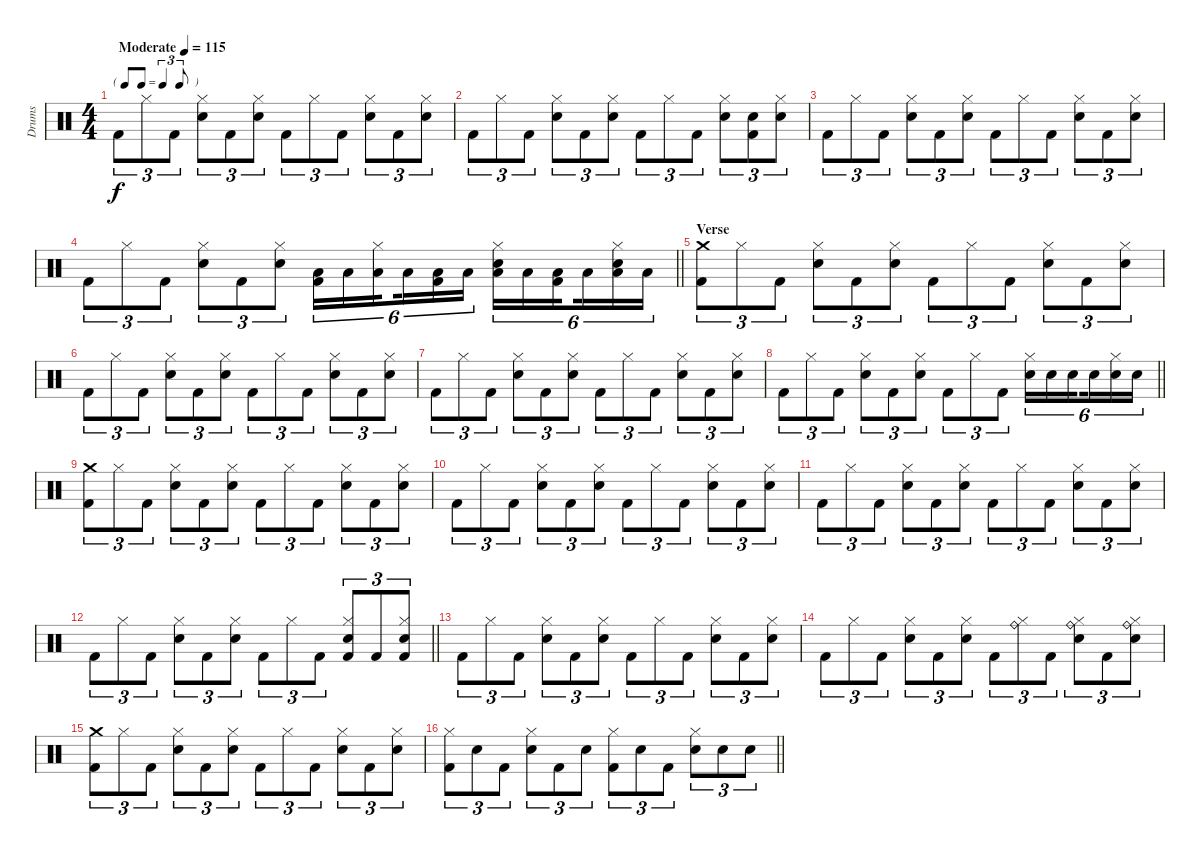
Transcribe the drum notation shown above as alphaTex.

\track ("Drums" "Drums") {instrument percussion}
\staff {score}
\articulation defaults
\ts (4 4)
\tf triplet8th
\tempo (115 "Moderate")
\clef neutral
\ks c "Kick (hit) 2".8{tu (3 2) dy f} "Hi-Hat (closed)".8{tu (3 2)} "Kick (hit) 2".8{tu (3 2)}
("Hi-Hat (closed)" "Snare (hit) 2").8{tu (3 2)} "Kick (hit) 2".8{tu (3 2)} ("Hi-Hat (closed)" "Snare (hit) 2").8{tu (3 2)} "Kick (hit) 2".8{tu (3 2)} "Hi-Hat (closed)".8{tu (3 2)} "Kick (hit) 2".8{tu (3 2)} ("Hi-Hat (closed)" "Snare (hit) 2").8{tu (3 2)} "Kick (hit) 2".8{tu (3 2)} ("Hi-Hat (closed)" "Snare (hit) 2").8{tu (3 2)} |
"Kick (hit) 2".8{tu (3 2)} "Hi-Hat (closed)".8{tu (3 2)} "Kick (hit) 2".8{tu (3 2)} ("Hi-Hat (closed)" "Snare (hit) 2").8{tu (3 2)} "Kick (hit) 2".8{tu (3 2)} ("Hi-Hat (closed)" "Snare (hit) 2").8{tu (3 2)} "Kick (hit) 2".8{tu (3 2)} "Hi-Hat (closed)".8{tu (3 2)} "Kick (hit) 2".8{tu (3 2)} ("Hi-Hat (closed)" "Snare (hit) 2").8{tu (3 2)} ("Snare (hit) 2" "Kick (hit) 2").8{tu (3 2)} ("Hi-Hat (closed)" "Snare (hit) 2").8{tu (3 2)} |
"Kick (hit) 2".8{tu (3 2)} "Hi-Hat (closed)".8{tu (3 2)} "Kick (hit) 2".8{tu (3 2)} ("Hi-Hat (closed)" "Snare (hit) 2").8{tu (3 2)} "Kick (hit) 2".8{tu (3 2)} ("Hi-Hat (closed)" "Snare (hit) 2").8{tu (3 2)} "Kick (hit) 2".8{tu (3 2)} "Hi-Hat (closed)".8{tu (3 2)} "Kick (hit) 2".8{tu (3 2)} ("Hi-Hat (closed)" "Snare (hit) 2").8{tu (3 2)} "Kick (hit) 2".8{tu (3 2)} ("Hi-Hat (closed)" "Snare (hit) 2").8{tu (3 2)} |
\barLineRight lightlight "Kick (hit) 2".8{tu (3 2)} "Hi-Hat (closed)".8{tu (3 2)} "Kick (hit) 2".8{tu (3 2)}
("Hi-Hat (closed)" "Snare (hit) 2").8{tu (3 2)} "Kick (hit) 2".8{tu (3 2)} ("Hi-Hat (closed)" "Snare (hit) 2").8{tu (3 2)} ("Low Tom (hit)" "Kick (hit) 2").16{tu (6 4)} "Low Tom (hit)".16{tu (6 4)} ("Hi-Hat (closed)" "Low Tom (hit)").16{tu (6 4) beam splitsecondary} "Low Tom (hit)".16{tu (6 4)} ("Low Tom (hit)" "Kick (hit) 2").16{tu (6 4)} "Low Tom (hit)".16{tu (6 4)} ("Hi-Hat (closed)" "Snare (hit) 2" "Low Floor Tom (hit)").16{tu (6 4)} "Low Floor Tom (hit)".16{tu (6 4)} ("Low Floor Tom (hit)" "Kick (hit) 2").16{tu (6 4) beam splitsecondary} "Low Floor Tom (hit)".16{tu (6 4)} ("Hi-Hat (closed)" "Snare (hit) 2" "Low Floor Tom (hit)").16{tu (6 4)} "Low Floor Tom (hit)".16{tu (6 4)} |
\section ("" "Verse")
("Crash medium (hit)" "Kick (hit) 2").8{tu (3 2)} "Hi-Hat (closed)".8{tu (3 2)} "Kick (hit) 2".8{tu (3 2)} ("Hi-Hat (closed)" "Snare (hit) 2").8{tu (3 2)} "Kick (hit) 2".8{tu (3 2)} ("Hi-Hat (closed)" "Snare (hit) 2").8{tu (3 2)} "Kick (hit) 2".8{tu (3 2)} "Hi-Hat (closed)".8{tu (3 2)} "Kick (hit) 2".8{tu (3 2)} ("Hi-Hat (closed)" "Snare (hit) 2").8{tu (3 2)} "Kick (hit) 2".8{tu (3 2)} ("Hi-Hat (closed)" "Snare (hit) 2").8{tu (3 2)} |
"Kick (hit) 2".8{tu (3 2)} "Hi-Hat (closed)".8{tu (3 2)} "Kick (hit) 2".8{tu (3 2)} ("Hi-Hat (closed)" "Snare (hit) 2").8{tu (3 2)} "Kick (hit) 2".8{tu (3 2)} ("Hi-Hat (closed)" "Snare (hit) 2").8{tu (3 2)} "Kick (hit) 2".8{tu (3 2)} "Hi-Hat (closed)".8{tu (3 2)} "Kick (hit) 2".8{tu (3 2)} ("Hi-Hat (closed)" "Snare (hit) 2").8{tu (3 2)} "Kick (hit) 2".8{tu (3 2)} ("Hi-Hat (closed)" "Snare (hit) 2").8{tu (3 2)} |
"Kick (hit) 2".8{tu (3 2)} "Hi-Hat (closed)".8{tu (3 2)} "Kick (hit) 2".8{tu (3 2)} ("Hi-Hat (closed)" "Snare (hit) 2").8{tu (3 2)} "Kick (hit) 2".8{tu (3 2)} ("Hi-Hat (closed)" "Snare (hit) 2").8{tu (3 2)} "Kick (hit) 2".8{tu (3 2)} "Hi-Hat (closed)".8{tu (3 2)} "Kick (hit) 2".8{tu (3 2)} ("Hi-Hat (closed)" "Snare (hit) 2").8{tu (3 2)} "Kick (hit) 2".8{tu (3 2)} ("Hi-Hat (closed)" "Snare (hit) 2").8{tu (3 2)} |
\barLineRight lightlight "Kick (hit) 2".8{tu (3 2)} "Hi-Hat (closed)".8{tu (3 2)} "Kick (hit) 2".8{tu (3 2)}
("Hi-Hat (closed)" "Snare (hit) 2").8{tu (3 2)} "Kick (hit) 2".8{tu (3 2)} ("Hi-Hat (closed)" "Snare (hit) 2").8{tu (3 2)} "Kick (hit) 2".8{tu (3 2)} "Hi-Hat (closed)".8{tu (3 2)} "Kick (hit) 2".8{tu (3 2)} ("Hi-Hat (closed)" "Snare (hit) 2").16{tu (6 4)} "Snare (hit) 2".16{tu (6 4)} "Snare (hit) 2".16{tu (6 4) beam splitsecondary} "Snare (hit) 2".16{tu (6 4)} ("Hi-Hat (closed)" "Snare (hit) 2").16{tu (6 4)} "Snare (hit) 2".16{tu (6 4)} |
("Crash medium (hit)" "Kick (hit) 2").8{tu (3 2)} "Hi-Hat (closed)".8{tu (3 2)} "Kick (hit) 2".8{tu (3 2)} ("Hi-Hat (closed)" "Snare (hit) 2").8{tu (3 2)} "Kick (hit) 2".8{tu (3 2)} ("Hi-Hat (closed)" "Snare (hit) 2").8{tu (3 2)} "Kick (hit) 2".8{tu (3 2)} "Hi-Hat (closed)".8{tu (3 2)} "Kick (hit) 2".8{tu (3 2)} ("Hi-Hat (closed)" "Snare (hit) 2").8{tu (3 2)} "Kick (hit) 2".8{tu (3 2)} ("Hi-Hat (closed)" "Snare (hit) 2").8{tu (3 2)} |
"Kick (hit) 2".8{tu (3 2)} "Hi-Hat (closed)".8{tu (3 2)} "Kick (hit) 2".8{tu (3 2)} ("Hi-Hat (closed)" "Snare (hit) 2").8{tu (3 2)} "Kick (hit) 2".8{tu (3 2)} ("Hi-Hat (closed)" "Snare (hit) 2").8{tu (3 2)} "Kick (hit) 2".8{tu (3 2)} "Hi-Hat (closed)".8{tu (3 2)} "Kick (hit) 2".8{tu (3 2)} ("Hi-Hat (closed)" "Snare (hit) 2").8{tu (3 2)} "Kick (hit) 2".8{tu (3 2)} ("Hi-Hat (closed)" "Snare (hit) 2").8{tu (3 2)} |
"Kick (hit) 2".8{tu (3 2)} "Hi-Hat (closed)".8{tu (3 2)} "Kick (hit) 2".8{tu (3 2)} ("Hi-Hat (closed)" "Snare (hit) 2").8{tu (3 2)} "Kick (hit) 2".8{tu (3 2)} ("Hi-Hat (closed)" "Snare (hit) 2").8{tu (3 2)} "Kick (hit) 2".8{tu (3 2)} "Hi-Hat (closed)".8{tu (3 2)} "Kick (hit) 2".8{tu (3 2)} ("Hi-Hat (closed)" "Snare (hit) 2").8{tu (3 2)} "Kick (hit) 2".8{tu (3 2)} ("Hi-Hat (closed)" "Snare (hit) 2").8{tu (3 2)} |
\barLineRight lightlight "Kick (hit) 2".8{tu (3 2)} "Hi-Hat (closed)".8{tu (3 2)} "Kick (hit) 2".8{tu (3 2)}
("Hi-Hat (closed)" "Snare (hit) 2").8{tu (3 2)} "Kick (hit) 2".8{tu (3 2)} ("Hi-Hat (closed)" "Snare (hit) 2").8{tu (3 2)} "Kick (hit) 2".8{tu (3 2)} "Hi-Hat (closed)".8{tu (3 2)} "Kick (hit) 2".8{tu (3 2)} ("Hi-Hat (closed)" "Snare (hit) 2" "Kick (hit) 2").8{tu (3 2)} "Kick (hit) 2".8{tu (3 2)} ("Hi-Hat (closed)" "Snare (hit) 2" "Kick (hit) 2").8{tu (3 2)} |
"Kick (hit) 2".8{tu (3 2)} "Hi-Hat (closed)".8{tu (3 2)} "Kick (hit) 2".8{tu (3 2)} ("Hi-Hat (closed)" "Snare (hit) 2").8{tu (3 2)} "Kick (hit) 2".8{tu (3 2)} ("Hi-Hat (closed)" "Snare (hit) 2").8{tu (3 2)} "Kick (hit) 2".8{tu (3 2)} "Hi-Hat (closed)".8{tu (3 2)} "Kick (hit) 2".8{tu (3 2)} ("Hi-Hat (closed)" "Snare (hit) 2").8{tu (3 2)} "Kick (hit) 2".8{tu (3 2)} ("Hi-Hat (closed)" "Snare (hit) 2").8{tu (3 2)} |
"Kick (hit) 2".8{tu (3 2)} "Hi-Hat (closed)".8{tu (3 2)} "Kick (hit) 2".8{tu (3 2)} ("Hi-Hat (closed)" "Snare (hit) 2").8{tu (3 2)} "Kick (hit) 2".8{tu (3 2)} ("Hi-Hat (closed)" "Snare (hit) 2").8{tu (3 2)} "Kick (hit) 2".8{tu (3 2)} ("Hi-Hat (closed)" "Ride (bell)").8{tu (3 2)} "Kick (hit) 2".8{tu (3 2)} ("Hi-Hat (closed)" "Ride (bell)" "Snare (hit) 2").8{tu (3 2)} "Kick (hit) 2".8{tu (3 2)} ("Hi-Hat (closed)" "Ride (bell)" "Snare (hit) 2").8{tu (3 2)} |
("Crash medium (hit)" "Kick (hit) 2").8{tu (3 2)} "Hi-Hat (closed)".8{tu (3 2)} "Kick (hit) 2".8{tu (3 2)} ("Hi-Hat (closed)" "Snare (hit) 2").8{tu (3 2)} "Kick (hit) 2".8{tu (3 2)} ("Hi-Hat (closed)" "Snare (hit) 2").8{tu (3 2)} "Kick (hit) 2".8{tu (3 2)} "Hi-Hat (closed)".8{tu (3 2)} "Kick (hit) 2".8{tu (3 2)} ("Hi-Hat (closed)" "Snare (hit) 2").8{tu (3 2)} "Kick (hit) 2".8{tu (3 2)} ("Hi-Hat (closed)" "Snare (hit) 2").8{tu (3 2)} |
\barLineRight lightlight
("Hi-Hat (closed)" "Kick (hit) 2").8{tu (3 2)} "Snare (hit) 2".8{tu (3 2)} "Kick (hit) 2".8{tu (3 2)} ("Hi-Hat (closed)" "Snare (hit) 2").8{tu (3 2)} "Kick (hit) 2".8{tu (3 2)} "Snare (hit) 2".8{tu (3 2)} ("Hi-Hat (closed)" "Kick (hit) 2").8{tu (3 2)} "Snare (hit) 2".8{tu (3 2)} "Kick (hit) 2".8{tu (3 2)} ("Hi-Hat (closed)" "Snare (hit) 2").8{tu (3 2)} "Snare (hit) 2".8{tu (3 2)} "Snare (hit) 2".8{tu (3 2)}
